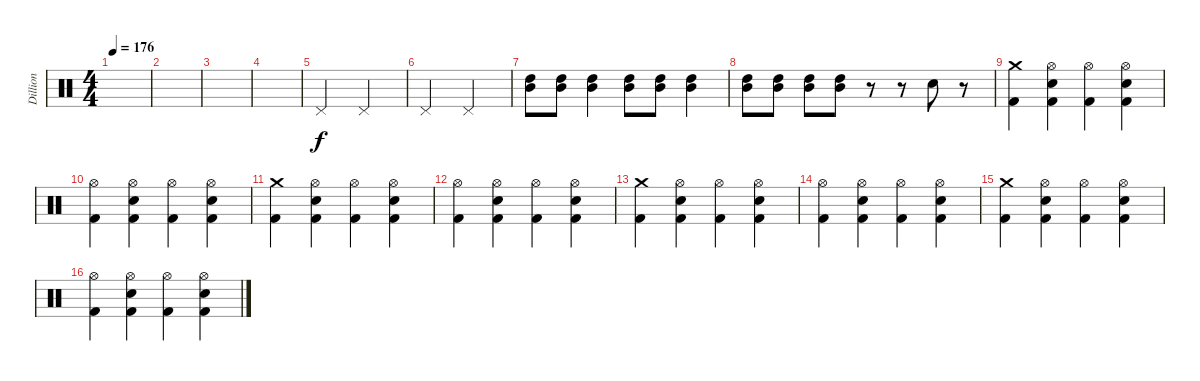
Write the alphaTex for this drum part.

\track ("Dillion" "Dillion") {instrument percussion}
\staff {score}
\articulation defaults
\ts (4 4)
\tempo 176
\clef neutral
\ks c
|
|
|
|
"Pedal Hi-Hat (hit)".2 "Pedal Hi-Hat (hit)".2 |
"Pedal Hi-Hat (hit)".2 "Pedal Hi-Hat (hit)".2 |
("High Tom (hit)" "Mid Tom (hit)").8 ("High Tom (hit)" "Mid Tom (hit)").8 ("High Tom (hit)" "Mid Tom (hit)").4 ("High Tom (hit)" "Mid Tom (hit)").8 ("High Tom (hit)" "Mid Tom (hit)").8 ("High Tom (hit)" "Mid Tom (hit)").4 |
("High Tom (hit)" "Mid Tom (hit)").8 ("High Tom (hit)" "Mid Tom (hit)").8 ("High Tom (hit)" "Mid Tom (hit)").8 ("High Tom (hit)" "Mid Tom (hit)").8 r.8 r.8 "Electric Snare (hit)".8 r.8 |
("Crash medium (hit)" "Kick (hit) 2").4 ("Hi-Hat (open)" "Electric Snare (hit)" "Kick (hit) 2").4 ("Hi-Hat (open)" "Kick (hit) 2").4 ("Hi-Hat (open)" "Electric Snare (hit)" "Kick (hit) 2").4 |
("Hi-Hat (open)" "Kick (hit) 2").4 ("Hi-Hat (open)" "Electric Snare (hit)" "Kick (hit) 2").4 ("Hi-Hat (open)" "Kick (hit) 2").4 ("Hi-Hat (open)" "Electric Snare (hit)" "Kick (hit) 2").4 |
("Crash medium (hit)" "Kick (hit) 2").4 ("Hi-Hat (open)" "Electric Snare (hit)" "Kick (hit) 2").4 ("Hi-Hat (open)" "Kick (hit) 2").4 ("Hi-Hat (open)" "Electric Snare (hit)" "Kick (hit) 2").4 |
("Hi-Hat (open)" "Kick (hit) 2").4 ("Hi-Hat (open)" "Electric Snare (hit)" "Kick (hit) 2").4 ("Hi-Hat (open)" "Kick (hit) 2").4 ("Hi-Hat (open)" "Electric Snare (hit)" "Kick (hit) 2").4 |
("Crash medium (hit)" "Kick (hit) 2").4 ("Hi-Hat (open)" "Electric Snare (hit)" "Kick (hit) 2").4 ("Hi-Hat (open)" "Kick (hit) 2").4 ("Hi-Hat (open)" "Electric Snare (hit)" "Kick (hit) 2").4 |
("Hi-Hat (open)" "Kick (hit) 2").4 ("Hi-Hat (open)" "Electric Snare (hit)" "Kick (hit) 2").4 ("Hi-Hat (open)" "Kick (hit) 2").4 ("Hi-Hat (open)" "Electric Snare (hit)" "Kick (hit) 2").4 |
("Crash medium (hit)" "Kick (hit) 2").4 ("Hi-Hat (open)" "Electric Snare (hit)" "Kick (hit) 2").4 ("Hi-Hat (open)" "Kick (hit) 2").4 ("Hi-Hat (open)" "Electric Snare (hit)" "Kick (hit) 2").4 |
("Hi-Hat (open)" "Kick (hit) 2").4 ("Hi-Hat (open)" "Electric Snare (hit)" "Kick (hit) 2").4 ("Hi-Hat (open)" "Kick (hit) 2").4 ("Hi-Hat (open)" "Electric Snare (hit)" "Kick (hit) 2").4
